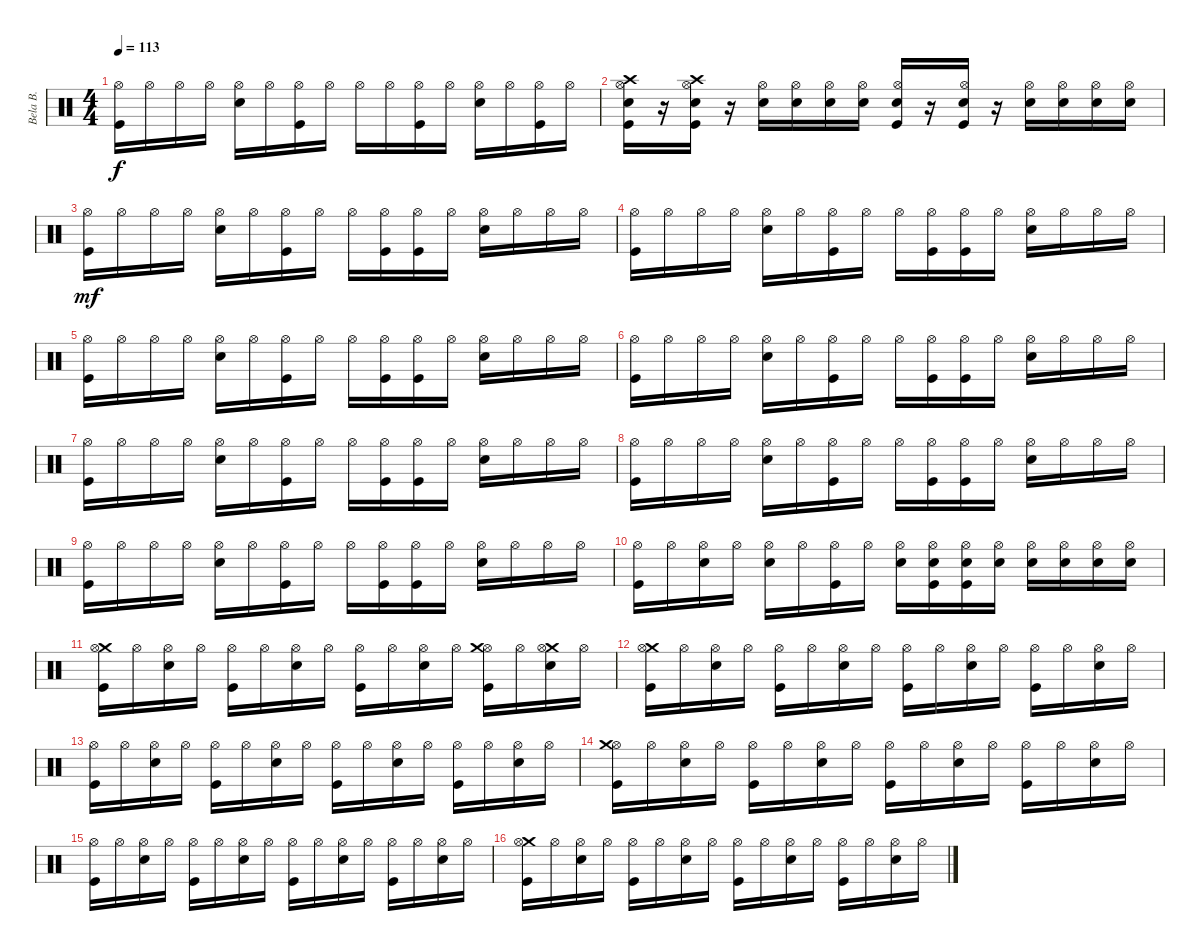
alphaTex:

\track ("Bela B." "Bela B.") {instrument percussion}
\staff {score}
\articulation defaults
\ts (4 4)
\tempo 113
\clef neutral
\ks c
("Kick (hit)" "Hi-Hat (open)").16{dy f} "Hi-Hat (open)".16 "Hi-Hat (open)".16 "Hi-Hat (open)".16 ("Snare (hit) 2" "Hi-Hat (open)").16 "Hi-Hat (open)".16 ("Hi-Hat (open)" "Kick (hit)").16 "Hi-Hat (open)".16 "Hi-Hat (open)".16 "Hi-Hat (open)".16 ("Kick (hit)" "Hi-Hat (open)").16 "Hi-Hat (open)".16 ("Hi-Hat (open)" "Snare (hit) 2").16 "Hi-Hat (open)".16 ("Hi-Hat (open)" "Kick (hit)").16 "Hi-Hat (open)".16 |
("Crash high (hit)" "Hi-Hat (open)" "Snare (hit) 2" "Kick (hit)").16 r.16 ("Crash high (hit)" "Kick (hit)" "Snare (hit) 2" "Hi-Hat (open)").16 r.16 ("Snare (hit) 2" "Hi-Hat (open)").16 ("Hi-Hat (open)" "Snare (hit) 2").16 ("Snare (hit) 2" "Hi-Hat (open)").16 ("Hi-Hat (open)" "Snare (hit) 2").16 ("Hi-Hat (open)" "Snare (hit) 2" "Kick (hit)").16 r.16 ("Kick (hit)" "Snare (hit) 2" "Hi-Hat (open)").16 r.16 ("Snare (hit) 2" "Hi-Hat (open)").16 ("Hi-Hat (open)" "Snare (hit) 2").16 ("Snare (hit) 2" "Hi-Hat (open)").16 ("Snare (hit) 2" "Hi-Hat (open)").16 |
("Hi-Hat (open)" "Kick (hit)").16{dy mf} "Hi-Hat (open)".16 "Hi-Hat (open)".16 "Hi-Hat (open)".16 ("Hi-Hat (open)" "Snare (hit) 2").16 "Hi-Hat (open)".16 ("Hi-Hat (open)" "Kick (hit)").16 "Hi-Hat (open)".16 "Hi-Hat (open)".16 ("Hi-Hat (open)" "Kick (hit)").16 ("Hi-Hat (open)" "Kick (hit)").16 "Hi-Hat (open)".16 ("Hi-Hat (open)" "Snare (hit) 2").16 "Hi-Hat (open)".16 "Hi-Hat (open)".16 "Hi-Hat (open)".16 |
("Kick (hit)" "Hi-Hat (open)").16 "Hi-Hat (open)".16 "Hi-Hat (open)".16 "Hi-Hat (open)".16 ("Snare (hit) 2" "Hi-Hat (open)").16 "Hi-Hat (open)".16 ("Kick (hit)" "Hi-Hat (open)").16 "Hi-Hat (open)".16 "Hi-Hat (open)".16 ("Hi-Hat (open)" "Kick (hit)").16 ("Hi-Hat (open)" "Kick (hit)").16 "Hi-Hat (open)".16 ("Snare (hit) 2" "Hi-Hat (open)").16 "Hi-Hat (open)".16 "Hi-Hat (open)".16 "Hi-Hat (open)".16 |
("Kick (hit)" "Hi-Hat (open)").16 "Hi-Hat (open)".16 "Hi-Hat (open)".16 "Hi-Hat (open)".16 ("Hi-Hat (open)" "Snare (hit) 2").16 "Hi-Hat (open)".16 ("Kick (hit)" "Hi-Hat (open)").16 "Hi-Hat (open)".16 "Hi-Hat (open)".16 ("Hi-Hat (open)" "Kick (hit)").16 ("Kick (hit)" "Hi-Hat (open)").16 "Hi-Hat (open)".16 ("Hi-Hat (open)" "Snare (hit) 2").16 "Hi-Hat (open)".16 "Hi-Hat (open)".16 "Hi-Hat (open)".16 |
("Kick (hit)" "Hi-Hat (open)").16 "Hi-Hat (open)".16 "Hi-Hat (open)".16 "Hi-Hat (open)".16 ("Snare (hit) 2" "Hi-Hat (open)").16 "Hi-Hat (open)".16 ("Kick (hit)" "Hi-Hat (open)").16 "Hi-Hat (open)".16 "Hi-Hat (open)".16 ("Hi-Hat (open)" "Kick (hit)").16 ("Kick (hit)" "Hi-Hat (open)").16 "Hi-Hat (open)".16 ("Snare (hit) 2" "Hi-Hat (open)").16 "Hi-Hat (open)".16 "Hi-Hat (open)".16 "Hi-Hat (open)".16 |
("Kick (hit)" "Hi-Hat (open)").16 "Hi-Hat (open)".16 "Hi-Hat (open)".16 "Hi-Hat (open)".16 ("Hi-Hat (open)" "Snare (hit) 2").16 "Hi-Hat (open)".16 ("Kick (hit)" "Hi-Hat (open)").16 "Hi-Hat (open)".16 "Hi-Hat (open)".16 ("Hi-Hat (open)" "Kick (hit)").16 ("Kick (hit)" "Hi-Hat (open)").16 "Hi-Hat (open)".16 ("Snare (hit) 2" "Hi-Hat (open)").16 "Hi-Hat (open)".16 "Hi-Hat (open)".16 "Hi-Hat (open)".16 |
("Kick (hit)" "Hi-Hat (open)").16 "Hi-Hat (open)".16 "Hi-Hat (open)".16 "Hi-Hat (open)".16 ("Snare (hit) 2" "Hi-Hat (open)").16 "Hi-Hat (open)".16 ("Kick (hit)" "Hi-Hat (open)").16 "Hi-Hat (open)".16 "Hi-Hat (open)".16 ("Hi-Hat (open)" "Kick (hit)").16 ("Kick (hit)" "Hi-Hat (open)").16 "Hi-Hat (open)".16 ("Snare (hit) 2" "Hi-Hat (open)").16 "Hi-Hat (open)".16 "Hi-Hat (open)".16 "Hi-Hat (open)".16 |
("Kick (hit)" "Hi-Hat (open)").16 "Hi-Hat (open)".16 "Hi-Hat (open)".16 "Hi-Hat (open)".16 ("Snare (hit) 2" "Hi-Hat (open)").16 "Hi-Hat (open)".16 ("Hi-Hat (open)" "Kick (hit)").16 "Hi-Hat (open)".16 "Hi-Hat (open)".16 ("Kick (hit)" "Hi-Hat (open)").16 ("Hi-Hat (open)" "Kick (hit)").16 "Hi-Hat (open)".16 ("Snare (hit) 2" "Hi-Hat (open)").16 "Hi-Hat (open)".16 "Hi-Hat (open)".16 "Hi-Hat (open)".16 |
("Kick (hit)" "Hi-Hat (open)").16 "Hi-Hat (open)".16 ("Snare (hit) 2" "Hi-Hat (open)").16 "Hi-Hat (open)".16 ("Hi-Hat (open)" "Snare (hit) 2").16 "Hi-Hat (open)".16 ("Hi-Hat (open)" "Kick (hit)").16 "Hi-Hat (open)".16 ("Hi-Hat (open)" "Snare (hit) 2").16 ("Snare (hit) 2" "Kick (hit)" "Hi-Hat (open)").16 ("Snare (hit) 2" "Hi-Hat (open)" "Kick (hit)").16 ("Hi-Hat (open)" "Snare (hit) 2").16 ("Hi-Hat (open)" "Snare (hit) 2").16 ("Hi-Hat (open)" "Snare (hit) 2").16 ("Hi-Hat (open)" "Snare (hit) 2").16 ("Hi-Hat (open)" "Snare (hit) 2").16 |
("Crash medium (hit)" "Kick (hit)" "Hi-Hat (open)").16 "Hi-Hat (open)".16 ("Snare (hit) 2" "Hi-Hat (open)").16 "Hi-Hat (open)".16 ("Hi-Hat (open)" "Kick (hit)").16 "Hi-Hat (open)".16 ("Snare (hit) 2" "Hi-Hat (open)").16 "Hi-Hat (open)".16 ("Hi-Hat (open)" "Kick (hit)").16 "Hi-Hat (open)".16 ("Hi-Hat (open)" "Snare (hit) 2").16 "Hi-Hat (open)".16 ("Hi-Hat (open)" "Crash medium (hit)" "Kick (hit)").16 "Hi-Hat (open)".16 ("Crash medium (hit)" "Hi-Hat (open)" "Snare (hit) 2").16 "Hi-Hat (open)".16 |
("Crash medium (hit)" "Kick (hit)" "Hi-Hat (open)").16 "Hi-Hat (open)".16 ("Hi-Hat (open)" "Snare (hit) 2").16 "Hi-Hat (open)".16 ("Kick (hit)" "Hi-Hat (open)").16 "Hi-Hat (open)".16 ("Snare (hit) 2" "Hi-Hat (open)").16 "Hi-Hat (open)".16 ("Kick (hit)" "Hi-Hat (open)").16 "Hi-Hat (open)".16 ("Hi-Hat (open)" "Snare (hit) 2").16 "Hi-Hat (open)".16 ("Kick (hit)" "Hi-Hat (open)").16 "Hi-Hat (open)".16 ("Snare (hit) 2" "Hi-Hat (open)").16 "Hi-Hat (open)".16 |
("Kick (hit)" "Hi-Hat (open)").16 "Hi-Hat (open)".16 ("Hi-Hat (open)" "Snare (hit) 2").16 "Hi-Hat (open)".16 ("Kick (hit)" "Hi-Hat (open)").16 "Hi-Hat (open)".16 ("Hi-Hat (open)" "Snare (hit) 2").16 "Hi-Hat (open)".16 ("Hi-Hat (open)" "Kick (hit)").16 "Hi-Hat (open)".16 ("Snare (hit) 2" "Hi-Hat (open)").16 "Hi-Hat (open)".16 ("Kick (hit)" "Hi-Hat (open)").16 "Hi-Hat (open)".16 ("Snare (hit) 2" "Hi-Hat (open)").16 "Hi-Hat (open)".16 |
("Hi-Hat (open)" "Crash medium (hit)" "Kick (hit)").16 "Hi-Hat (open)".16 ("Hi-Hat (open)" "Snare (hit) 2").16 "Hi-Hat (open)".16 ("Kick (hit)" "Hi-Hat (open)").16 "Hi-Hat (open)".16 ("Hi-Hat (open)" "Snare (hit) 2").16 "Hi-Hat (open)".16 ("Hi-Hat (open)" "Kick (hit)").16 "Hi-Hat (open)".16 ("Hi-Hat (open)" "Snare (hit) 2").16 "Hi-Hat (open)".16 ("Hi-Hat (open)" "Kick (hit)").16 "Hi-Hat (open)".16 ("Snare (hit) 2" "Hi-Hat (open)").16 "Hi-Hat (open)".16 |
("Kick (hit)" "Hi-Hat (open)").16 "Hi-Hat (open)".16 ("Snare (hit) 2" "Hi-Hat (open)").16 "Hi-Hat (open)".16 ("Hi-Hat (open)" "Kick (hit)").16 "Hi-Hat (open)".16 ("Hi-Hat (open)" "Snare (hit) 2").16 "Hi-Hat (open)".16 ("Hi-Hat (open)" "Kick (hit)").16 "Hi-Hat (open)".16 ("Hi-Hat (open)" "Snare (hit) 2").16 "Hi-Hat (open)".16 ("Hi-Hat (open)" "Kick (hit)").16 "Hi-Hat (open)".16 ("Snare (hit) 2" "Hi-Hat (open)").16 "Hi-Hat (open)".16 |
("Crash medium (hit)" "Hi-Hat (open)" "Kick (hit)").16 "Hi-Hat (open)".16 ("Snare (hit) 2" "Hi-Hat (open)").16 "Hi-Hat (open)".16 ("Kick (hit)" "Hi-Hat (open)").16 "Hi-Hat (open)".16 ("Hi-Hat (open)" "Snare (hit) 2").16 "Hi-Hat (open)".16 ("Kick (hit)" "Hi-Hat (open)").16 "Hi-Hat (open)".16 ("Hi-Hat (open)" "Snare (hit) 2").16 "Hi-Hat (open)".16 ("Kick (hit)" "Hi-Hat (open)").16 "Hi-Hat (open)".16 ("Hi-Hat (open)" "Snare (hit) 2").16 "Hi-Hat (open)".16
